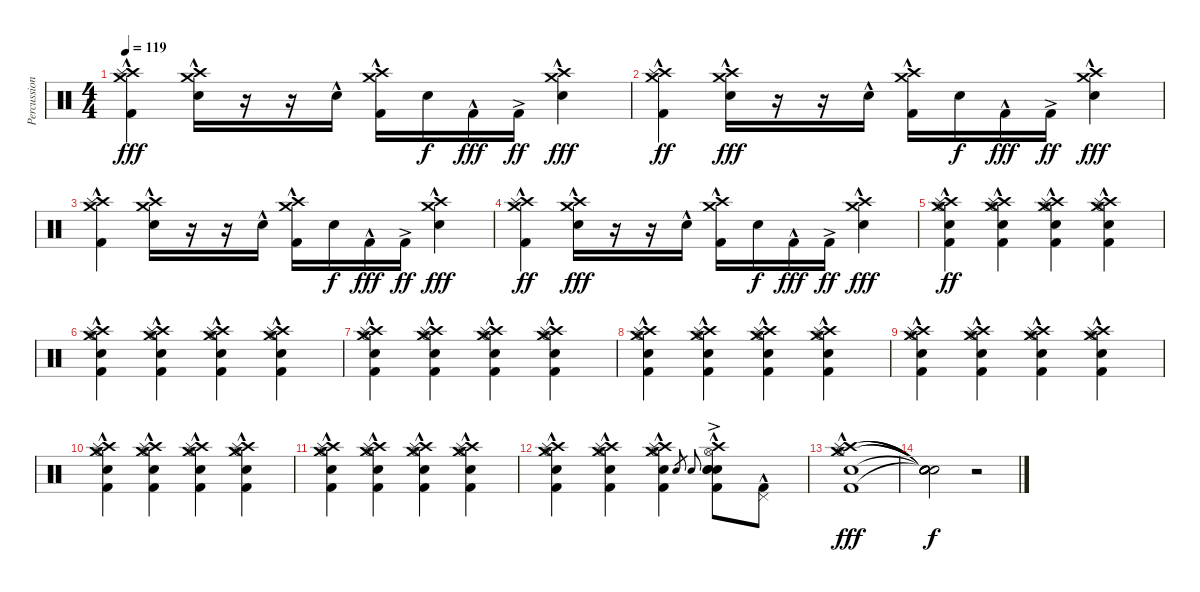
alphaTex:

\track ("Percussion" "Percussion") {instrument percussion}
\staff {score}
\articulation defaults
\ts (4 4)
\tempo 119
\clef neutral
\ks c
("Crash high (hit)"{hac} "Crash medium (hit)"{hac} "Splash (hit)"{hac} "Kick (hit) 2"{hac}).4{dy fff} ("Crash high (hit)" "Crash medium (hit)"{hac} "Electric Snare (hit)"{hac}).16 r.16 r.16 "Electric Snare (hit)"{hac}.16 ("Crash high (hit)" "Crash medium (hit)"{hac} "Kick (hit) 2").16 "Electric Snare (hit)".16{dy f} "Kick (hit) 2"{hac}.16{dy fff} "Kick (hit) 2"{ac}.16{dy ff} ("Crash high (hit)" "Crash medium (hit)"{hac} "Electric Snare (hit)"{hac}).4{dy fff} |
("Crash high (hit)"{hac} "Crash medium (hit)"{hac} "Splash (hit)"{hac} "Kick (hit) 2"{hac}).4{dy ff} ("Crash high (hit)" "Crash medium (hit)"{hac} "Electric Snare (hit)"{hac}).16{dy fff} r.16 r.16 "Electric Snare (hit)"{hac}.16 ("Crash high (hit)" "Crash medium (hit)"{hac} "Kick (hit) 2").16 "Electric Snare (hit)".16{dy f} "Kick (hit) 2"{hac}.16{dy fff} "Kick (hit) 2"{ac}.16{dy ff} ("Crash high (hit)" "Crash medium (hit)"{hac} "Electric Snare (hit)"{hac}).4{dy fff} |
("Crash high (hit)"{hac} "Crash medium (hit)"{hac} "Splash (hit)"{hac} "Kick (hit) 2"{hac}).4 ("Crash high (hit)" "Crash medium (hit)"{hac} "Electric Snare (hit)"{hac}).16 r.16 r.16 "Electric Snare (hit)"{hac}.16 ("Crash high (hit)" "Crash medium (hit)"{hac} "Kick (hit) 2").16 "Electric Snare (hit)".16{dy f} "Kick (hit) 2"{hac}.16{dy fff} "Kick (hit) 2"{ac}.16{dy ff} ("Crash high (hit)" "Crash medium (hit)"{hac} "Electric Snare (hit)"{hac}).4{dy fff} |
("Crash high (hit)"{hac} "Crash medium (hit)"{hac} "Splash (hit)"{hac} "Kick (hit) 2"{hac}).4{dy ff} ("Crash high (hit)" "Crash medium (hit)"{hac} "Electric Snare (hit)"{hac}).16{dy fff} r.16 r.16 "Electric Snare (hit)"{hac}.16 ("Crash high (hit)" "Crash medium (hit)"{hac} "Kick (hit) 2").16 "Electric Snare (hit)".16{dy f} "Kick (hit) 2"{hac}.16{dy fff} "Kick (hit) 2"{ac}.16{dy ff} ("Crash high (hit)" "Crash medium (hit)"{hac} "Electric Snare (hit)"{hac}).4{dy fff} |
("Hi-Hat (open)"{hac} "Crash high (hit)"{hac} "Crash medium (hit)"{hac} "Splash (hit)"{hac} "Electric Snare (hit)"{hac} "Kick (hit) 2"{hac}).4{dy ff} ("Hi-Hat (open)"{hac} "Crash high (hit)"{hac} "Crash medium (hit)"{hac} "Splash (hit)"{hac} "Electric Snare (hit)"{hac} "Kick (hit) 2"{hac}).4 ("Hi-Hat (open)"{hac} "Crash high (hit)"{hac} "Crash medium (hit)"{hac} "Splash (hit)"{hac} "Electric Snare (hit)"{hac} "Kick (hit) 2"{hac}).4 ("Hi-Hat (open)"{hac} "Crash high (hit)"{hac} "Crash medium (hit)"{hac} "Splash (hit)"{hac} "Electric Snare (hit)"{hac} "Kick (hit) 2"{hac}).4 |
("Hi-Hat (open)"{hac} "Crash high (hit)"{hac} "Crash medium (hit)"{hac} "Splash (hit)"{hac} "Electric Snare (hit)"{hac} "Kick (hit) 2"{hac}).4 ("Hi-Hat (open)"{hac} "Crash high (hit)"{hac} "Crash medium (hit)"{hac} "Splash (hit)"{hac} "Electric Snare (hit)"{hac} "Kick (hit) 2"{hac}).4 ("Hi-Hat (open)"{hac} "Crash high (hit)"{hac} "Crash medium (hit)"{hac} "Splash (hit)"{hac} "Electric Snare (hit)"{hac} "Kick (hit) 2"{hac}).4 ("Hi-Hat (open)"{hac} "Crash high (hit)"{hac} "Crash medium (hit)"{hac} "Splash (hit)"{hac} "Electric Snare (hit)"{hac} "Kick (hit) 2"{hac}).4 |
("Hi-Hat (open)"{hac} "Crash high (hit)"{hac} "Crash medium (hit)"{hac} "Splash (hit)"{hac} "Electric Snare (hit)"{hac} "Kick (hit) 2"{hac}).4 ("Hi-Hat (open)"{hac} "Crash high (hit)"{hac} "Crash medium (hit)"{hac} "Splash (hit)"{hac} "Electric Snare (hit)"{hac} "Kick (hit) 2"{hac}).4 ("Hi-Hat (open)"{hac} "Crash high (hit)"{hac} "Crash medium (hit)"{hac} "Splash (hit)"{hac} "Electric Snare (hit)"{hac} "Kick (hit) 2"{hac}).4 ("Hi-Hat (open)"{hac} "Crash high (hit)"{hac} "Crash medium (hit)"{hac} "Splash (hit)"{hac} "Electric Snare (hit)"{hac} "Kick (hit) 2"{hac}).4 |
("Hi-Hat (open)"{hac} "Crash high (hit)"{hac} "Crash medium (hit)"{hac} "Splash (hit)"{hac} "Electric Snare (hit)"{hac} "Kick (hit) 2"{hac}).4 ("Hi-Hat (open)"{hac} "Crash high (hit)"{hac} "Crash medium (hit)"{hac} "Splash (hit)"{hac} "Electric Snare (hit)"{hac} "Kick (hit) 2"{hac}).4 ("Hi-Hat (open)"{hac} "Crash high (hit)"{hac} "Crash medium (hit)"{hac} "Splash (hit)"{hac} "Electric Snare (hit)"{hac} "Kick (hit) 2"{hac}).4 ("Hi-Hat (open)"{hac} "Crash high (hit)"{hac} "Crash medium (hit)"{hac} "Splash (hit)"{hac} "Electric Snare (hit)"{hac} "Kick (hit) 2"{hac}).4 |
("Hi-Hat (open)"{hac} "Crash high (hit)"{hac} "Crash medium (hit)"{hac} "Splash (hit)"{hac} "Electric Snare (hit)"{hac} "Kick (hit) 2"{hac}).4 ("Hi-Hat (open)"{hac} "Crash high (hit)"{hac} "Crash medium (hit)"{hac} "Splash (hit)"{hac} "Electric Snare (hit)"{hac} "Kick (hit) 2"{hac}).4 ("Hi-Hat (open)"{hac} "Crash high (hit)"{hac} "Crash medium (hit)"{hac} "Splash (hit)"{hac} "Electric Snare (hit)"{hac} "Kick (hit) 2"{hac}).4 ("Hi-Hat (open)"{hac} "Crash high (hit)"{hac} "Crash medium (hit)"{hac} "Splash (hit)"{hac} "Electric Snare (hit)"{hac} "Kick (hit) 2"{hac}).4 |
("Hi-Hat (open)"{hac} "Crash high (hit)"{hac} "Crash medium (hit)"{hac} "Splash (hit)"{hac} "Electric Snare (hit)"{hac} "Kick (hit) 2"{hac}).4 ("Hi-Hat (open)"{hac} "Crash high (hit)"{hac} "Crash medium (hit)"{hac} "Splash (hit)"{hac} "Electric Snare (hit)"{hac} "Kick (hit) 2"{hac}).4 ("Hi-Hat (open)"{hac} "Crash high (hit)"{hac} "Crash medium (hit)"{hac} "Splash (hit)"{hac} "Electric Snare (hit)"{hac} "Kick (hit) 2"{hac}).4 ("Hi-Hat (open)"{hac} "Crash high (hit)"{hac} "Crash medium (hit)"{hac} "Splash (hit)"{hac} "Electric Snare (hit)"{hac} "Kick (hit) 2"{hac}).4 |
("Hi-Hat (open)"{hac} "Crash high (hit)"{hac} "Crash medium (hit)"{hac} "Splash (hit)"{hac} "Electric Snare (hit)"{hac} "Kick (hit) 2"{hac}).4 ("Hi-Hat (open)"{hac} "Crash high (hit)"{hac} "Crash medium (hit)"{hac} "Splash (hit)"{hac} "Electric Snare (hit)"{hac} "Kick (hit) 2"{hac}).4 ("Hi-Hat (open)"{hac} "Crash high (hit)"{hac} "Crash medium (hit)"{hac} "Splash (hit)"{hac} "Electric Snare (hit)"{hac} "Kick (hit) 2"{hac}).4 ("Hi-Hat (open)"{hac} "Crash high (hit)"{hac} "Crash medium (hit)"{hac} "Splash (hit)"{hac} "Electric Snare (hit)"{hac} "Kick (hit) 2"{hac}).4 |
("Hi-Hat (open)"{hac} "Crash high (hit)"{hac} "Crash medium (hit)"{hac} "Splash (hit)"{hac} "Electric Snare (hit)"{hac} "Kick (hit) 2"{hac}).4 ("Hi-Hat (open)"{hac} "Crash high (hit)"{hac} "Crash medium (hit)"{hac} "Splash (hit)"{hac} "Electric Snare (hit)"{hac} "Kick (hit) 2"{hac}).4 ("Hi-Hat (open)"{hac} "Crash high (hit)"{hac} "Crash medium (hit)"{hac} "Splash (hit)"{hac} "Electric Snare (hit)"{hac} "Kick (hit) 2"{hac}).4 "Electric Snare (hit)".16{gr} "Electric Snare (hit)".16{gr onbeat} ("Hi-Hat (open)"{hac} "Crash high (hit)"{hac} "Electric Snare (hit)" "Electric Snare (hit)"{ac} "Electric Snare (hit)"{hac} "Kick (hit) 2"{hac}).8 ("Pedal Hi-Hat (hit)"{hac} "Kick (hit) 2"{hac}).8 |
("Hi-Hat (open)"{hac} "Crash high (hit)"{hac} "Crash medium (hit)"{hac} "Splash (hit)"{hac} "Electric Snare (hit)"{hac} "Kick (hit) 2"{hac}).1{dy fff} |
("Snare (hit)"{t} "Snare (hit)"{t} "Snare (hit)"{t} "Snare (hit)"{t} "Snare (hit)"{t} "Snare (hit)"{t}).2{dy f} r.2
